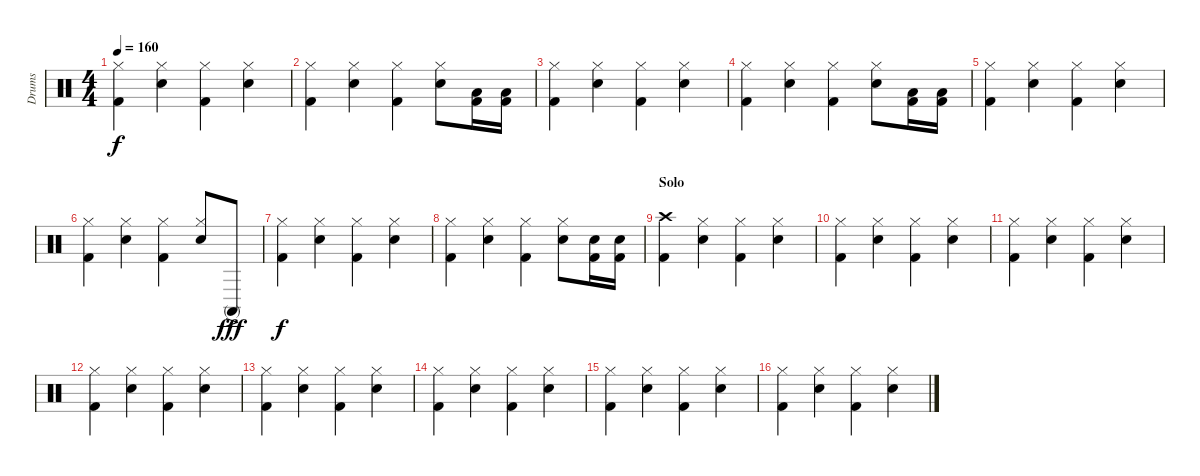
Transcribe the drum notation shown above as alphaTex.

\track ("Drums" "Drums") {instrument percussion}
\staff {score}
\articulation defaults
\ts (4 4)
\tempo 160
\clef neutral
\ks c
("Hi-Hat (closed)" "Kick (hit) 2").4{dy f} ("Hi-Hat (closed)" "Snare (hit) 2").4 ("Hi-Hat (closed)" "Kick (hit) 2").4 ("Hi-Hat (closed)" "Snare (hit) 2").4 |
("Hi-Hat (closed)" "Kick (hit) 2").4 ("Hi-Hat (closed)" "Snare (hit) 2").4 ("Hi-Hat (closed)" "Kick (hit) 2").4 ("Hi-Hat (closed)" "Snare (hit) 2").8 ("Low Tom (hit)" "Kick (hit) 2").16 ("Low Floor Tom (hit)" "Kick (hit) 2").16 |
("Hi-Hat (closed)" "Kick (hit) 2").4 ("Hi-Hat (closed)" "Snare (hit) 2").4 ("Hi-Hat (closed)" "Kick (hit) 2").4 ("Hi-Hat (closed)" "Snare (hit) 2").4 |
("Hi-Hat (closed)" "Kick (hit) 2").4 ("Hi-Hat (closed)" "Snare (hit) 2").4 ("Hi-Hat (closed)" "Kick (hit) 2").4 ("Hi-Hat (closed)" "Snare (hit) 2").8 ("Low Tom (hit)" "Kick (hit) 2").16 ("Low Floor Tom (hit)" "Kick (hit) 2").16 |
("Hi-Hat (closed)" "Kick (hit) 2").4 ("Hi-Hat (closed)" "Snare (hit) 2").4 ("Hi-Hat (closed)" "Kick (hit) 2").4 ("Hi-Hat (closed)" "Snare (hit) 2").4 |
("Hi-Hat (closed)" "Kick (hit) 2").4 ("Hi-Hat (closed)" "Snare (hit) 2").4 ("Hi-Hat (closed)" "Kick (hit) 2").4 ("Hi-Hat (closed)" "Snare (hit) 2").8 "Conga high (mute)"{ac}.8{dy fff} |
("Hi-Hat (closed)" "Kick (hit) 2").4{dy f} ("Hi-Hat (closed)" "Snare (hit) 2").4 ("Hi-Hat (closed)" "Kick (hit) 2").4 ("Hi-Hat (closed)" "Snare (hit) 2").4 |
("Hi-Hat (closed)" "Kick (hit) 2").4 ("Hi-Hat (closed)" "Snare (hit) 2").4 ("Hi-Hat (closed)" "Kick (hit) 2").4 ("Hi-Hat (closed)" "Snare (hit) 2").8 ("Snare (hit) 2" "Kick (hit) 2").16 ("Snare (hit) 2" "Kick (hit) 2").16 |
\section ("" "Solo")
("Crash high (hit)" "Kick (hit) 2").4 ("Hi-Hat (closed)" "Snare (hit) 2").4 ("Hi-Hat (closed)" "Kick (hit) 2").4 ("Hi-Hat (closed)" "Snare (hit) 2").4 |
("Hi-Hat (closed)" "Kick (hit) 2").4 ("Hi-Hat (closed)" "Snare (hit) 2").4 ("Hi-Hat (closed)" "Kick (hit) 2").4 ("Hi-Hat (closed)" "Snare (hit) 2").4 |
("Hi-Hat (closed)" "Kick (hit) 2").4 ("Hi-Hat (closed)" "Snare (hit) 2").4 ("Hi-Hat (closed)" "Kick (hit) 2").4 ("Hi-Hat (closed)" "Snare (hit) 2").4 |
("Hi-Hat (closed)" "Kick (hit) 2").4 ("Hi-Hat (closed)" "Snare (hit) 2").4 ("Hi-Hat (closed)" "Kick (hit) 2").4 ("Hi-Hat (closed)" "Snare (hit) 2").4 |
("Hi-Hat (closed)" "Kick (hit) 2").4 ("Hi-Hat (closed)" "Snare (hit) 2").4 ("Hi-Hat (closed)" "Kick (hit) 2").4 ("Hi-Hat (closed)" "Snare (hit) 2").4 |
("Hi-Hat (closed)" "Kick (hit) 2").4 ("Hi-Hat (closed)" "Snare (hit) 2").4 ("Hi-Hat (closed)" "Kick (hit) 2").4 ("Hi-Hat (closed)" "Snare (hit) 2").4 |
("Hi-Hat (closed)" "Kick (hit) 2").4 ("Hi-Hat (closed)" "Snare (hit) 2").4 ("Hi-Hat (closed)" "Kick (hit) 2").4 ("Hi-Hat (closed)" "Snare (hit) 2").4 |
("Hi-Hat (closed)" "Kick (hit) 2").4 ("Hi-Hat (closed)" "Snare (hit) 2").4 ("Hi-Hat (closed)" "Kick (hit) 2").4 ("Hi-Hat (closed)" "Snare (hit) 2").4
